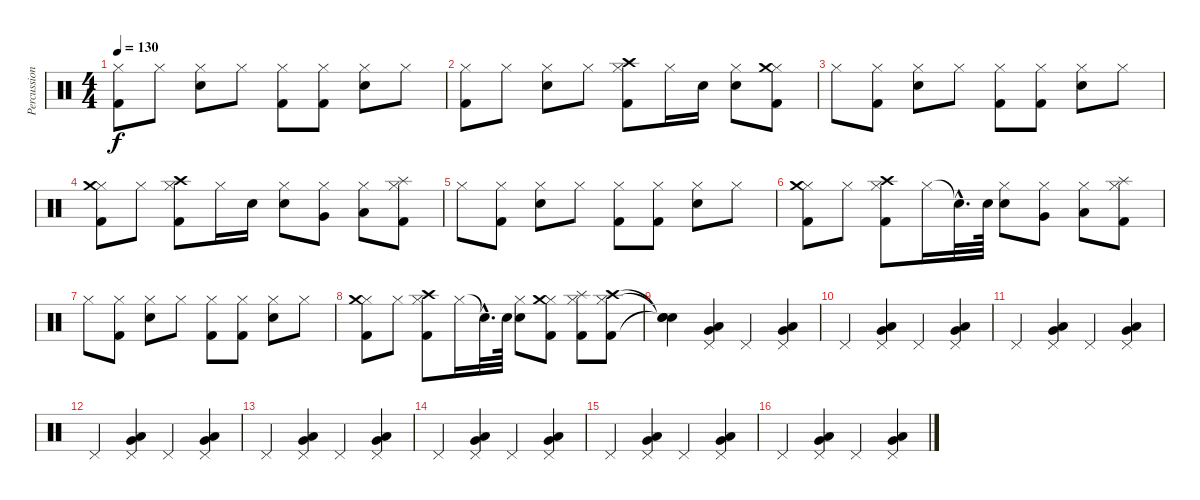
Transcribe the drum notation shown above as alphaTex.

\track ("Percussion" "Percussion") {instrument percussion}
\staff {score}
\articulation defaults
\ts (4 4)
\tempo 130
\clef neutral
\ks c
("Hi-Hat (closed)" "Kick (hit) 2").8{dy f} "Hi-Hat (closed)".8 ("Hi-Hat (closed)" "Metronome (bell)").8 "Hi-Hat (closed)".8 ("Hi-Hat (closed)" "Kick (hit) 2").8 ("Hi-Hat (closed)" "Kick (hit) 2").8 ("Hi-Hat (closed)" "Metronome (bell)").8 "Hi-Hat (closed)".8 |
("Hi-Hat (closed)" "Kick (hit) 2").8 "Hi-Hat (closed)".8 ("Hi-Hat (closed)" "Metronome (bell)").8 "Hi-Hat (closed)".8 ("Hi-Hat (closed)" "Crash high (hit)" "Kick (hit) 2").8 "Hi-Hat (closed)".16 "Metronome (bell)".16 ("Hi-Hat (closed)" "Metronome (bell)").8 ("Hi-Hat (closed)" "Crash medium (hit)" "Kick (hit) 2").8 |
"Hi-Hat (closed)".8 ("Hi-Hat (closed)" "Kick (hit) 2").8 ("Hi-Hat (closed)" "Metronome (bell)").8 "Hi-Hat (closed)".8 ("Hi-Hat (closed)" "Kick (hit) 2").8 ("Hi-Hat (closed)" "Kick (hit) 2").8 ("Hi-Hat (closed)" "Metronome (bell)").8 "Hi-Hat (closed)".8 |
("Hi-Hat (closed)" "Crash medium (hit)" "Kick (hit) 2").8 "Hi-Hat (closed)".8 ("Hi-Hat (closed)" "Crash high (hit)" "Kick (hit) 2").8 "Hi-Hat (closed)".16 "Metronome (bell)".16 ("Hi-Hat (closed)" "Metronome (bell)").8 ("Hi-Hat (closed)" "Very Low Tom (hit)").8 ("Hi-Hat (closed)" "Low Floor Tom (hit)").8 ("Hi-Hat (closed)" "Splash (hit)" "Kick (hit) 2").8 |
"Hi-Hat (closed)".8 ("Hi-Hat (closed)" "Kick (hit) 2").8 ("Hi-Hat (closed)" "Metronome (bell)").8 "Hi-Hat (closed)".8 ("Hi-Hat (closed)" "Kick (hit) 2").8 ("Hi-Hat (closed)" "Kick (hit) 2").8 ("Hi-Hat (closed)" "Metronome (bell)").8 "Hi-Hat (closed)".8 |
("Hi-Hat (closed)" "Crash medium (hit)" "Kick (hit) 2").8 "Hi-Hat (closed)".8 ("Hi-Hat (closed)" "Crash high (hit)" "Kick (hit) 2").8 "Hi-Hat (closed)".16 "Snare (hit)"{hac t}.32{d} "Metronome (bell)".64 ("Hi-Hat (closed)" "Metronome (bell)").8 ("Hi-Hat (closed)" "Very Low Tom (hit)").8 ("Hi-Hat (closed)" "Low Floor Tom (hit)").8 ("Hi-Hat (closed)" "Splash (hit)" "Kick (hit) 2").8 |
"Hi-Hat (closed)".8 ("Hi-Hat (closed)" "Kick (hit) 2").8 ("Hi-Hat (closed)" "Metronome (bell)").8 "Hi-Hat (closed)".8 ("Hi-Hat (closed)" "Kick (hit) 2").8 ("Hi-Hat (closed)" "Kick (hit) 2").8 ("Hi-Hat (closed)" "Metronome (bell)").8 "Hi-Hat (closed)".8 |
("Hi-Hat (closed)" "Crash medium (hit)" "Kick (hit) 2").8 "Hi-Hat (closed)".8 ("Hi-Hat (closed)" "Crash high (hit)" "Kick (hit) 2").8 "Hi-Hat (closed)".16 "Snare (hit)"{hac t}.32{d} "Metronome (bell)".64 ("Hi-Hat (closed)" "Metronome (bell)").8 ("Hi-Hat (closed)" "Crash medium (hit)" "Kick (hit) 2").8 ("Hi-Hat (closed)" "Splash (hit)" "Kick (hit) 2").8 ("Hi-Hat (closed)" "Crash high (hit)" "Kick (hit) 2").8 |
("Snare (hit)"{t} "Snare (hit)"{t} "Snare (hit)"{t}).4 ("Pedal Hi-Hat (hit)" "Low Tom (hit)" "Very Low Tom (hit)").4 "Pedal Hi-Hat (hit)".4 ("Pedal Hi-Hat (hit)" "Low Tom (hit)" "Very Low Tom (hit)").4 |
"Pedal Hi-Hat (hit)".4 ("Pedal Hi-Hat (hit)" "Low Tom (hit)" "Very Low Tom (hit)").4 "Pedal Hi-Hat (hit)".4 ("Pedal Hi-Hat (hit)" "Low Tom (hit)" "Very Low Tom (hit)").4 |
"Pedal Hi-Hat (hit)".4 ("Pedal Hi-Hat (hit)" "Low Tom (hit)" "Very Low Tom (hit)").4 "Pedal Hi-Hat (hit)".4 ("Pedal Hi-Hat (hit)" "Low Tom (hit)" "Very Low Tom (hit)").4 |
"Pedal Hi-Hat (hit)".4 ("Pedal Hi-Hat (hit)" "Low Tom (hit)" "Very Low Tom (hit)").4 "Pedal Hi-Hat (hit)".4 ("Pedal Hi-Hat (hit)" "Low Tom (hit)" "Very Low Tom (hit)").4 |
"Pedal Hi-Hat (hit)".4 ("Pedal Hi-Hat (hit)" "Low Tom (hit)" "Very Low Tom (hit)").4 "Pedal Hi-Hat (hit)".4 ("Pedal Hi-Hat (hit)" "Low Tom (hit)" "Very Low Tom (hit)").4 |
"Pedal Hi-Hat (hit)".4 ("Pedal Hi-Hat (hit)" "Low Tom (hit)" "Very Low Tom (hit)").4 "Pedal Hi-Hat (hit)".4 ("Pedal Hi-Hat (hit)" "Low Tom (hit)" "Very Low Tom (hit)").4 |
"Pedal Hi-Hat (hit)".4 ("Pedal Hi-Hat (hit)" "Low Tom (hit)" "Very Low Tom (hit)").4 "Pedal Hi-Hat (hit)".4 ("Pedal Hi-Hat (hit)" "Low Tom (hit)" "Very Low Tom (hit)").4 |
"Pedal Hi-Hat (hit)".4 ("Pedal Hi-Hat (hit)" "Low Tom (hit)" "Very Low Tom (hit)").4 "Pedal Hi-Hat (hit)".4 ("Pedal Hi-Hat (hit)" "Low Tom (hit)" "Very Low Tom (hit)").4
